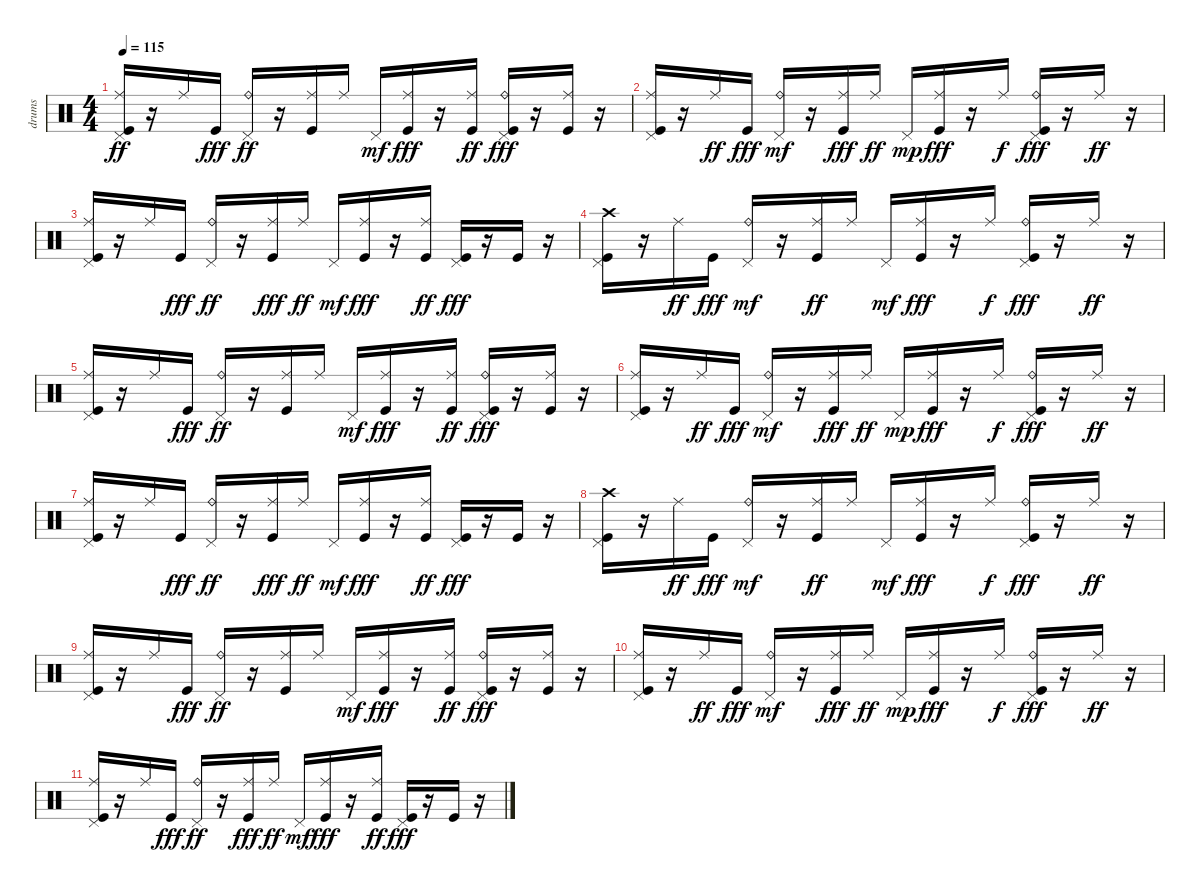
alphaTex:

\track ("drums" "drums") {instrument percussion}
\staff {score}
\articulation defaults
\ts (4 4)
\tempo 115
\clef neutral
\ks c
("Pedal Hi-Hat (hit)" "Kick (hit)" "Ride (middle)").16{dy ff} r.16 "Ride (middle)".16 "Kick (hit)".16{dy fff} ("Pedal Hi-Hat (hit)" "Ride (bell)").16{dy ff} r.16 ("Kick (hit)" "Ride (middle)").16 "Ride (middle)".16 "Pedal Hi-Hat (hit)".16{dy mf} ("Ride (middle)" "Kick (hit)").16{dy fff} r.16 ("Ride (middle)" "Kick (hit)").16{dy ff} ("Pedal Hi-Hat (hit)" "Ride (bell)" "Kick (hit)").16{dy fff} r.16 ("Ride (middle)" "Kick (hit)").16 r.16 |
("Pedal Hi-Hat (hit)" "Ride (middle)" "Kick (hit)").16 r.16 "Ride (middle)".16{dy ff} "Kick (hit)".16{dy fff} ("Pedal Hi-Hat (hit)" "Ride (bell)").16{dy mf} r.16 ("Ride (middle)" "Kick (hit)").16{dy fff} "Ride (middle)".16{dy ff} "Pedal Hi-Hat (hit)".16{dy mp} ("Ride (middle)" "Kick (hit)").16{dy fff} r.16 "Ride (middle)".16{dy f} ("Pedal Hi-Hat (hit)" "Ride (bell)" "Kick (hit)").16{dy fff} r.16 "Ride (middle)".16{dy ff} r.16 |
("Pedal Hi-Hat (hit)" "Kick (hit)" "Ride (middle)").16 r.16 "Ride (middle)".16 "Kick (hit)".16{dy fff} ("Pedal Hi-Hat (hit)" "Ride (bell)").16{dy ff} r.16 ("Kick (hit)" "Ride (middle)").16{dy fff} "Ride (middle)".16{dy ff} "Pedal Hi-Hat (hit)".16{dy mf} ("Ride (middle)" "Kick (hit)").16{dy fff} r.16 ("Kick (hit)" "Ride (middle)").16{dy ff} ("Pedal Hi-Hat (hit)" "Kick (hit)").16{dy fff} r.16 "Kick (hit)".16 r.16 |
("Crash high (hit)" "Pedal Hi-Hat (hit)" "Kick (hit)").16 r.16 "Ride (middle)".16{dy ff} "Kick (hit)".16{dy fff} ("Pedal Hi-Hat (hit)" "Ride (bell)").16{dy mf} r.16 ("Kick (hit)" "Ride (middle)").16{dy ff} "Ride (middle)".16 "Pedal Hi-Hat (hit)".16{dy mf} ("Ride (middle)" "Kick (hit)").16{dy fff} r.16 "Ride (middle)".16{dy f} ("Pedal Hi-Hat (hit)" "Ride (bell)" "Kick (hit)").16{dy fff} r.16 "Ride (middle)".16{dy ff} r.16 |
("Pedal Hi-Hat (hit)" "Kick (hit)" "Ride (middle)").16 r.16 "Ride (middle)".16 "Kick (hit)".16{dy fff} ("Pedal Hi-Hat (hit)" "Ride (bell)").16{dy ff} r.16 ("Kick (hit)" "Ride (middle)").16 "Ride (middle)".16 "Pedal Hi-Hat (hit)".16{dy mf} ("Ride (middle)" "Kick (hit)").16{dy fff} r.16 ("Ride (middle)" "Kick (hit)").16{dy ff} ("Pedal Hi-Hat (hit)" "Ride (bell)" "Kick (hit)").16{dy fff} r.16 ("Ride (middle)" "Kick (hit)").16 r.16 |
("Pedal Hi-Hat (hit)" "Ride (middle)" "Kick (hit)").16 r.16 "Ride (middle)".16{dy ff} "Kick (hit)".16{dy fff} ("Pedal Hi-Hat (hit)" "Ride (bell)").16{dy mf} r.16 ("Ride (middle)" "Kick (hit)").16{dy fff} "Ride (middle)".16{dy ff} "Pedal Hi-Hat (hit)".16{dy mp} ("Ride (middle)" "Kick (hit)").16{dy fff} r.16 "Ride (middle)".16{dy f} ("Pedal Hi-Hat (hit)" "Ride (bell)" "Kick (hit)").16{dy fff} r.16 "Ride (middle)".16{dy ff} r.16 |
("Pedal Hi-Hat (hit)" "Kick (hit)" "Ride (middle)").16 r.16 "Ride (middle)".16 "Kick (hit)".16{dy fff} ("Pedal Hi-Hat (hit)" "Ride (bell)").16{dy ff} r.16 ("Kick (hit)" "Ride (middle)").16{dy fff} "Ride (middle)".16{dy ff} "Pedal Hi-Hat (hit)".16{dy mf} ("Ride (middle)" "Kick (hit)").16{dy fff} r.16 ("Kick (hit)" "Ride (middle)").16{dy ff} ("Pedal Hi-Hat (hit)" "Kick (hit)").16{dy fff} r.16 "Kick (hit)".16 r.16 |
("Crash high (hit)" "Pedal Hi-Hat (hit)" "Kick (hit)").16 r.16 "Ride (middle)".16{dy ff} "Kick (hit)".16{dy fff} ("Pedal Hi-Hat (hit)" "Ride (bell)").16{dy mf} r.16 ("Kick (hit)" "Ride (middle)").16{dy ff} "Ride (middle)".16 "Pedal Hi-Hat (hit)".16{dy mf} ("Ride (middle)" "Kick (hit)").16{dy fff} r.16 "Ride (middle)".16{dy f} ("Pedal Hi-Hat (hit)" "Ride (bell)" "Kick (hit)").16{dy fff} r.16 "Ride (middle)".16{dy ff} r.16 |
("Pedal Hi-Hat (hit)" "Kick (hit)" "Ride (middle)").16 r.16 "Ride (middle)".16 "Kick (hit)".16{dy fff} ("Pedal Hi-Hat (hit)" "Ride (bell)").16{dy ff} r.16 ("Kick (hit)" "Ride (middle)").16 "Ride (middle)".16 "Pedal Hi-Hat (hit)".16{dy mf} ("Ride (middle)" "Kick (hit)").16{dy fff} r.16 ("Ride (middle)" "Kick (hit)").16{dy ff} ("Pedal Hi-Hat (hit)" "Ride (bell)" "Kick (hit)").16{dy fff} r.16 ("Ride (middle)" "Kick (hit)").16 r.16 |
("Pedal Hi-Hat (hit)" "Ride (middle)" "Kick (hit)").16 r.16 "Ride (middle)".16{dy ff} "Kick (hit)".16{dy fff} ("Pedal Hi-Hat (hit)" "Ride (bell)").16{dy mf} r.16 ("Ride (middle)" "Kick (hit)").16{dy fff} "Ride (middle)".16{dy ff} "Pedal Hi-Hat (hit)".16{dy mp} ("Ride (middle)" "Kick (hit)").16{dy fff} r.16 "Ride (middle)".16{dy f} ("Pedal Hi-Hat (hit)" "Ride (bell)" "Kick (hit)").16{dy fff} r.16 "Ride (middle)".16{dy ff} r.16 |
("Pedal Hi-Hat (hit)" "Kick (hit)" "Ride (middle)").16 r.16 "Ride (middle)".16 "Kick (hit)".16{dy fff} ("Pedal Hi-Hat (hit)" "Ride (bell)").16{dy ff} r.16 ("Kick (hit)" "Ride (middle)").16{dy fff} "Ride (middle)".16{dy ff} "Pedal Hi-Hat (hit)".16{dy mf} ("Ride (middle)" "Kick (hit)").16{dy fff} r.16 ("Kick (hit)" "Ride (middle)").16{dy ff} ("Pedal Hi-Hat (hit)" "Kick (hit)").16{dy fff} r.16 "Kick (hit)".16 r.16
